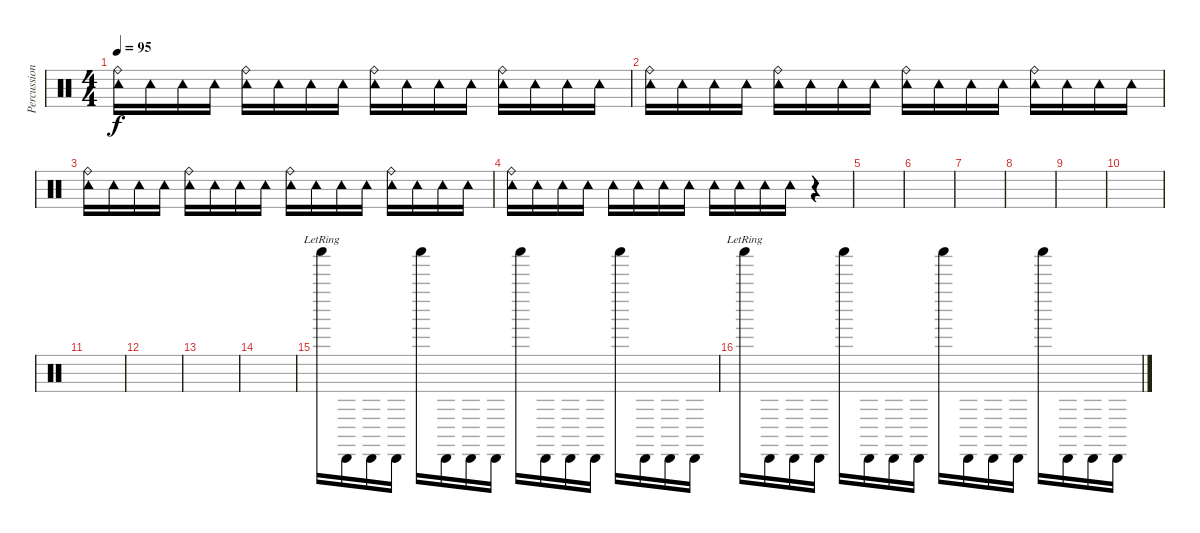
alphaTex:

\track ("Percussion (2)" "Percussion") {instrument percussion}
\staff {score}
\articulation defaults
\ts (4 4)
\tempo 95
\clef neutral
\ks c
("Tambourine (hit)" "Ride (bell)").16{dy f} "Tambourine (hit)".16 "Tambourine (hit)".16 "Tambourine (hit)".16 ("Tambourine (hit)" "Ride (bell)").16 "Tambourine (hit)".16 "Tambourine (hit)".16 "Tambourine (hit)".16 ("Tambourine (hit)" "Ride (bell)").16 "Tambourine (hit)".16 "Tambourine (hit)".16 "Tambourine (hit)".16 ("Tambourine (hit)" "Ride (bell)").16 "Tambourine (hit)".16 "Tambourine (hit)".16 "Tambourine (hit)".16 |
("Tambourine (hit)" "Ride (bell)").16 "Tambourine (hit)".16 "Tambourine (hit)".16 "Tambourine (hit)".16 ("Tambourine (hit)" "Ride (bell)").16 "Tambourine (hit)".16 "Tambourine (hit)".16 "Tambourine (hit)".16 ("Tambourine (hit)" "Ride (bell)").16 "Tambourine (hit)".16 "Tambourine (hit)".16 "Tambourine (hit)".16 ("Tambourine (hit)" "Ride (bell)").16 "Tambourine (hit)".16 "Tambourine (hit)".16 "Tambourine (hit)".16 |
("Tambourine (hit)" "Ride (bell)").16 "Tambourine (hit)".16 "Tambourine (hit)".16 "Tambourine (hit)".16 ("Tambourine (hit)" "Ride (bell)").16 "Tambourine (hit)".16 "Tambourine (hit)".16 "Tambourine (hit)".16 ("Tambourine (hit)" "Ride (bell)").16 "Tambourine (hit)".16 "Tambourine (hit)".16 "Tambourine (hit)".16 ("Tambourine (hit)" "Ride (bell)").16 "Tambourine (hit)".16 "Tambourine (hit)".16 "Tambourine (hit)".16 |
("Tambourine (hit)" "Ride (bell)").16 "Tambourine (hit)".16 "Tambourine (hit)".16 "Tambourine (hit)".16 "Tambourine (hit)".16 "Tambourine (hit)".16 "Tambourine (hit)".16 "Tambourine (hit)".16 "Tambourine (hit)".16 "Tambourine (hit)".16 "Tambourine (hit)".16 "Tambourine (hit)".16 r.4 |
|
|
|
|
|
|
|
|
|
|
"Shaker (hit)"{lr}.16 "Cabasa (hit)".16 "Cabasa (hit)".16 "Cabasa (hit)".16 "Shaker (hit)".16 "Cabasa (hit)".16 "Cabasa (hit)".16 "Cabasa (hit)".16 "Shaker (hit)".16 "Cabasa (hit)".16 "Cabasa (hit)".16 "Cabasa (hit)".16 "Shaker (hit)".16 "Cabasa (hit)".16 "Cabasa (hit)".16 "Cabasa (hit)".16 |
"Shaker (hit)"{lr}.16 "Cabasa (hit)".16 "Cabasa (hit)".16 "Cabasa (hit)".16 "Shaker (hit)".16 "Cabasa (hit)".16 "Cabasa (hit)".16 "Cabasa (hit)".16 "Shaker (hit)".16 "Cabasa (hit)".16 "Cabasa (hit)".16 "Cabasa (hit)".16 "Shaker (hit)".16 "Cabasa (hit)".16 "Cabasa (hit)".16 "Cabasa (hit)".16
